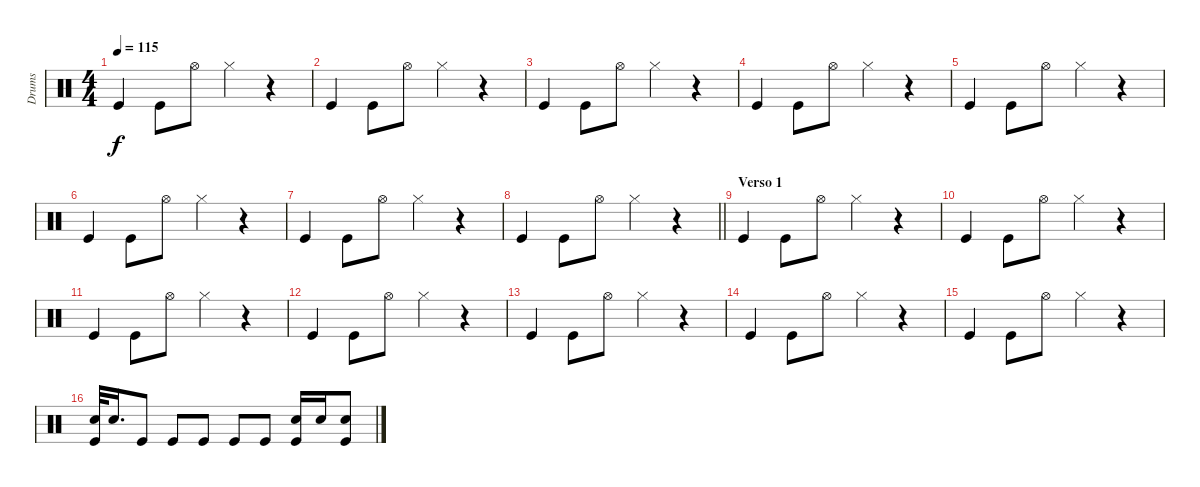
\track ("Drums" "Drums") {instrument percussion}
\staff {score}
\articulation defaults
\ts (4 4)
\tempo 115
\clef neutral
\ks c "Kick (hit)".4{dy f} "Kick (hit)".8 "Hi-Hat (open)".8 "Hi-Hat (closed)".4
r.4 |
"Kick (hit)".4 "Kick (hit)".8 "Hi-Hat (open)".8 "Hi-Hat (closed)".4 r.4 |
"Kick (hit)".4 "Kick (hit)".8 "Hi-Hat (open)".8 "Hi-Hat (closed)".4 r.4 |
"Kick (hit)".4 "Kick (hit)".8 "Hi-Hat (open)".8 "Hi-Hat (closed)".4 r.4 |
"Kick (hit)".4 "Kick (hit)".8 "Hi-Hat (open)".8 "Hi-Hat (closed)".4 r.4 |
"Kick (hit)".4 "Kick (hit)".8 "Hi-Hat (open)".8 "Hi-Hat (closed)".4 r.4 |
"Kick (hit)".4 "Kick (hit)".8 "Hi-Hat (open)".8 "Hi-Hat (closed)".4 r.4 |
\barLineRight lightlight "Kick (hit)".4 "Kick (hit)".8 "Hi-Hat (open)".8 "Hi-Hat (closed)".4
r.4 |
\section ("" "Verso 1")
"Kick (hit)".4 "Kick (hit)".8 "Hi-Hat (open)".8 "Hi-Hat (closed)".4 r.4 |
"Kick (hit)".4 "Kick (hit)".8 "Hi-Hat (open)".8 "Hi-Hat (closed)".4 r.4 |
"Kick (hit)".4 "Kick (hit)".8 "Hi-Hat (open)".8 "Hi-Hat (closed)".4 r.4 |
"Kick (hit)".4 "Kick (hit)".8 "Hi-Hat (open)".8 "Hi-Hat (closed)".4 r.4 |
"Kick (hit)".4 "Kick (hit)".8 "Hi-Hat (open)".8 "Hi-Hat (closed)".4 r.4 |
"Kick (hit)".4 "Kick (hit)".8 "Hi-Hat (open)".8 "Hi-Hat (closed)".4 r.4 |
"Kick (hit)".4 "Kick (hit)".8 "Hi-Hat (open)".8 "Hi-Hat (closed)".4 r.4 |
("Snare (hit) 2" "Kick (hit)").32 "Snare (hit) 2".16{d} "Kick (hit)".8 "Kick (hit)".8 "Kick (hit)".8 "Kick (hit)".8 "Kick (hit)".8 ("Snare (hit) 2" "Kick (hit)").16 "Snare (hit) 2".16 ("Snare (hit) 2" "Kick (hit)").8
